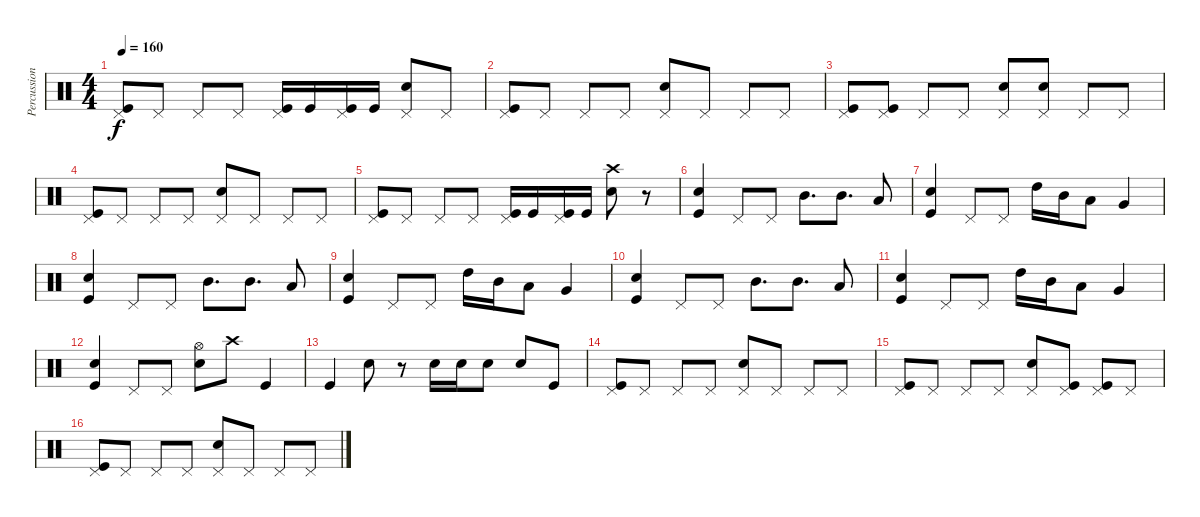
\track ("Percussion" "Percussion") {instrument percussion}
\staff {score}
\articulation defaults
\ts (4 4)
\tempo 160
\clef neutral
\ks c
("Pedal Hi-Hat (hit)" "Kick (hit)").8{dy f} "Pedal Hi-Hat (hit)".8 "Pedal Hi-Hat (hit)".8 "Pedal Hi-Hat (hit)".8 ("Pedal Hi-Hat (hit)" "Kick (hit)").16 "Kick (hit)".16 ("Pedal Hi-Hat (hit)" "Kick (hit)").16 "Kick (hit)".16 ("Pedal Hi-Hat (hit)" "Electric Snare (hit)").8 "Pedal Hi-Hat (hit)".8 |
("Pedal Hi-Hat (hit)" "Kick (hit)").8 "Pedal Hi-Hat (hit)".8 "Pedal Hi-Hat (hit)".8 "Pedal Hi-Hat (hit)".8 ("Pedal Hi-Hat (hit)" "Electric Snare (hit)").8 "Pedal Hi-Hat (hit)".8 "Pedal Hi-Hat (hit)".8 "Pedal Hi-Hat (hit)".8 |
("Pedal Hi-Hat (hit)" "Kick (hit)").8 ("Pedal Hi-Hat (hit)" "Kick (hit)").8 "Pedal Hi-Hat (hit)".8 "Pedal Hi-Hat (hit)".8 ("Pedal Hi-Hat (hit)" "Electric Snare (hit)").8 ("Pedal Hi-Hat (hit)" "Electric Snare (hit)").8 "Pedal Hi-Hat (hit)".8 "Pedal Hi-Hat (hit)".8 |
("Pedal Hi-Hat (hit)" "Kick (hit)").8 "Pedal Hi-Hat (hit)".8 "Pedal Hi-Hat (hit)".8 "Pedal Hi-Hat (hit)".8 ("Pedal Hi-Hat (hit)" "Electric Snare (hit)").8 "Pedal Hi-Hat (hit)".8 "Pedal Hi-Hat (hit)".8 "Pedal Hi-Hat (hit)".8 |
("Pedal Hi-Hat (hit)" "Kick (hit)").8 "Pedal Hi-Hat (hit)".8 "Pedal Hi-Hat (hit)".8 "Pedal Hi-Hat (hit)".8 ("Pedal Hi-Hat (hit)" "Kick (hit)").16 "Kick (hit)".16 ("Pedal Hi-Hat (hit)" "Kick (hit)").16 "Kick (hit)".16 ("Crash high (hit)" "Electric Snare (hit)").8 r.8 |
("Electric Snare (hit)" "Kick (hit)").4 "Pedal Hi-Hat (hit)".8 "Pedal Hi-Hat (hit)".8 "Mid Tom (hit)".8{d} "Mid Tom (hit)".8{d} "Low Tom (hit)".8 |
("Electric Snare (hit)" "Kick (hit)").4 "Pedal Hi-Hat (hit)".8 "Pedal Hi-Hat (hit)".8 "High Tom (hit)".16 "Mid Tom (hit)".16 "Low Tom (hit)".8 "Very Low Tom (hit)".4 |
("Electric Snare (hit)" "Kick (hit)").4 "Pedal Hi-Hat (hit)".8 "Pedal Hi-Hat (hit)".8 "Mid Tom (hit)".8{d} "Mid Tom (hit)".8{d} "Low Tom (hit)".8 |
("Electric Snare (hit)" "Kick (hit)").4 "Pedal Hi-Hat (hit)".8 "Pedal Hi-Hat (hit)".8 "High Tom (hit)".16 "Mid Tom (hit)".16 "Low Tom (hit)".8 "Very Low Tom (hit)".4 |
("Electric Snare (hit)" "Kick (hit)").4 "Pedal Hi-Hat (hit)".8 "Pedal Hi-Hat (hit)".8 "Mid Tom (hit)".8{d} "Mid Tom (hit)".8{d} "Low Tom (hit)".8 |
("Electric Snare (hit)" "Kick (hit)").4 "Pedal Hi-Hat (hit)".8 "Pedal Hi-Hat (hit)".8 "High Tom (hit)".16 "Mid Tom (hit)".16 "Low Tom (hit)".8 "Very Low Tom (hit)".4 |
("Electric Snare (hit)" "Kick (hit)").4 "Pedal Hi-Hat (hit)".8 "Pedal Hi-Hat (hit)".8 ("Hi-Hat (open)" "Electric Snare (hit)").8 "Crash high (hit)".8 "Kick (hit)".4 |
"Kick (hit)".4 "Electric Snare (hit)".8 r.8 "Electric Snare (hit)".16 "Electric Snare (hit)".16 "Electric Snare (hit)".8 "Electric Snare (hit)".8 "Kick (hit)".8 |
("Pedal Hi-Hat (hit)" "Kick (hit)").8 "Pedal Hi-Hat (hit)".8 "Pedal Hi-Hat (hit)".8 "Pedal Hi-Hat (hit)".8 ("Pedal Hi-Hat (hit)" "Electric Snare (hit)").8 "Pedal Hi-Hat (hit)".8 "Pedal Hi-Hat (hit)".8 "Pedal Hi-Hat (hit)".8 |
("Pedal Hi-Hat (hit)" "Kick (hit)").8 "Pedal Hi-Hat (hit)".8 "Pedal Hi-Hat (hit)".8 "Pedal Hi-Hat (hit)".8 ("Pedal Hi-Hat (hit)" "Electric Snare (hit)").8 ("Pedal Hi-Hat (hit)" "Kick (hit)").8 ("Pedal Hi-Hat (hit)" "Kick (hit)").8 "Pedal Hi-Hat (hit)".8 |
("Pedal Hi-Hat (hit)" "Kick (hit)").8 "Pedal Hi-Hat (hit)".8 "Pedal Hi-Hat (hit)".8 "Pedal Hi-Hat (hit)".8 ("Pedal Hi-Hat (hit)" "Electric Snare (hit)").8 "Pedal Hi-Hat (hit)".8 "Pedal Hi-Hat (hit)".8 "Pedal Hi-Hat (hit)".8
